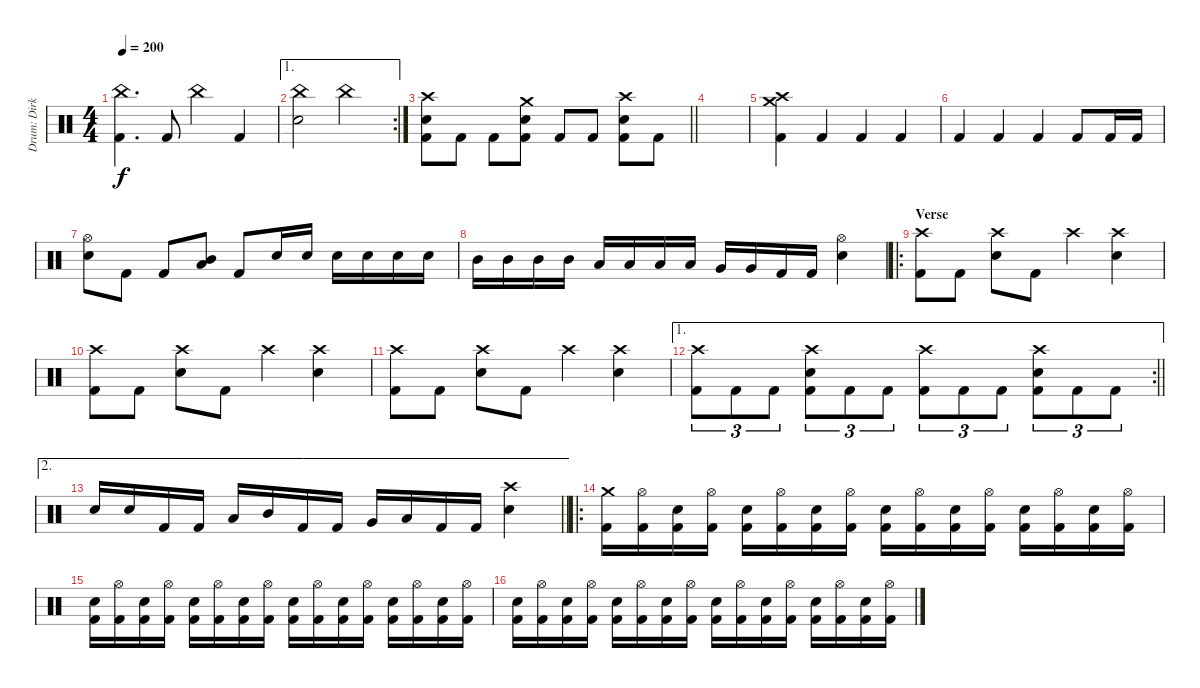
\track ("Drum: Dirk" "Drum: Dirk") {instrument percussion}
\staff {score}
\articulation defaults
\ts (4 4)
\tempo 200
\clef neutral
\ks c
("China (hit)" "Kick (hit) 2").4{d dy f} "Kick (hit) 2".8 "China (hit)".4 "Kick (hit) 2".4 |
\ae 1
\rc 2
("China (hit)" "Electric Snare (hit)").2 "China (hit)".2 |
\barLineRight lightlight
("Crash high (hit)" "Electric Snare (hit)" "Kick (hit) 2").8 "Kick (hit) 2".8 "Kick (hit) 2".8 ("Crash medium (hit)" "Electric Snare (hit)" "Kick (hit) 2").8 "Kick (hit) 2".8 "Kick (hit) 2".8 ("Crash high (hit)" "Electric Snare (hit)" "Kick (hit) 2").8 "Kick (hit) 2".8 |
\section ("" "")
|
("Crash high (hit)" "Crash medium (hit)" "Kick (hit) 2").4 "Kick (hit) 2".4 "Kick (hit) 2".4 "Kick (hit) 2".4 |
"Kick (hit) 2".4 "Kick (hit) 2".4 "Kick (hit) 2".4 "Kick (hit) 2".8 "Kick (hit) 2".16 "Kick (hit) 2".16 |
("Hi-Hat (open)" "Electric Snare (hit)").8 "Kick (hit) 2".8 "Kick (hit) 2".8 ("Mid Tom (hit)" "Low Tom (hit)").8 "Kick (hit) 2".8 "Electric Snare (hit)".16 "Electric Snare (hit)".16 "Electric Snare (hit)".16 "Electric Snare (hit)".16 "Electric Snare (hit)".16 "Electric Snare (hit)".16 |
"Mid Tom (hit)".16 "Mid Tom (hit)".16 "Mid Tom (hit)".16 "Mid Tom (hit)".16 "Low Tom (hit)".16 "Low Tom (hit)".16 "Low Tom (hit)".16 "Low Tom (hit)".16 "Very Low Tom (hit)".16 "Very Low Tom (hit)".16 "Kick (hit) 2".16 "Kick (hit) 2".16 ("Hi-Hat (open)" "Electric Snare (hit)").4 |
\ro
\section ("" "Verse")
("Crash high (hit)" "Kick (hit) 2").8 "Kick (hit) 2".8 ("Crash high (hit)" "Electric Snare (hit)").8 "Kick (hit) 2".8 "Crash high (hit)".4 ("Crash high (hit)" "Electric Snare (hit)").4 |
("Crash high (hit)" "Kick (hit) 2").8 "Kick (hit) 2".8 ("Crash high (hit)" "Electric Snare (hit)").8 "Kick (hit) 2".8 "Crash high (hit)".4 ("Crash high (hit)" "Electric Snare (hit)").4 |
("Crash high (hit)" "Kick (hit) 2").8 "Kick (hit) 2".8 ("Crash high (hit)" "Electric Snare (hit)").8 "Kick (hit) 2".8 "Crash high (hit)".4 ("Crash high (hit)" "Electric Snare (hit)").4 |
\ae 1
\rc 2
\barLineRight lightlight
("Crash high (hit)" "Kick (hit) 2").8{tu (3 2)} "Kick (hit) 2".8{tu (3 2)} "Kick (hit) 2".8{tu (3 2)} ("Crash high (hit)" "Electric Snare (hit)" "Kick (hit) 2").8{tu (3 2)} "Kick (hit) 2".8{tu (3 2)} "Kick (hit) 2".8{tu (3 2)} ("Crash high (hit)" "Kick (hit) 2").8{tu (3 2)} "Kick (hit) 2".8{tu (3 2)} "Kick (hit) 2".8{tu (3 2)} ("Crash high (hit)" "Electric Snare (hit)" "Kick (hit) 2").8{tu (3 2)} "Kick (hit) 2".8{tu (3 2)} "Kick (hit) 2".8{tu (3 2)} |
\ae 2
\barLineRight lightlight "Electric Snare (hit)".16 "Electric Snare (hit)".16 "Kick (hit) 2".16 "Kick (hit) 2".16 "Low Tom (hit)".16 "Mid Tom (hit)".16 "Kick (hit) 2".16 "Kick (hit) 2".16 "Very Low Tom (hit)".16 "Low Tom (hit)".16 "Kick (hit) 2".16 "Kick (hit) 2".16
("Crash high (hit)" "Electric Snare (hit)").4 |
\ro
("Crash medium (hit)" "Kick (hit) 2").16 ("Hi-Hat (open)" "Kick (hit) 2").16 ("Electric Snare (hit)" "Kick (hit) 2").16 ("Hi-Hat (open)" "Kick (hit) 2").16 ("Electric Snare (hit)" "Kick (hit) 2").16 ("Hi-Hat (open)" "Kick (hit) 2").16 ("Electric Snare (hit)" "Kick (hit) 2").16 ("Hi-Hat (open)" "Kick (hit) 2").16 ("Electric Snare (hit)" "Kick (hit) 2").16 ("Hi-Hat (open)" "Kick (hit) 2").16 ("Electric Snare (hit)" "Kick (hit) 2").16 ("Hi-Hat (open)" "Kick (hit) 2").16 ("Electric Snare (hit)" "Kick (hit) 2").16 ("Hi-Hat (open)" "Kick (hit) 2").16 ("Electric Snare (hit)" "Kick (hit) 2").16 ("Hi-Hat (open)" "Kick (hit) 2").16 |
("Electric Snare (hit)" "Kick (hit) 2").16 ("Hi-Hat (open)" "Kick (hit) 2").16 ("Electric Snare (hit)" "Kick (hit) 2").16 ("Hi-Hat (open)" "Kick (hit) 2").16 ("Electric Snare (hit)" "Kick (hit) 2").16 ("Hi-Hat (open)" "Kick (hit) 2").16 ("Electric Snare (hit)" "Kick (hit) 2").16 ("Hi-Hat (open)" "Kick (hit) 2").16 ("Electric Snare (hit)" "Kick (hit) 2").16 ("Hi-Hat (open)" "Kick (hit) 2").16 ("Electric Snare (hit)" "Kick (hit) 2").16 ("Hi-Hat (open)" "Kick (hit) 2").16 ("Electric Snare (hit)" "Kick (hit) 2").16 ("Hi-Hat (open)" "Kick (hit) 2").16 ("Electric Snare (hit)" "Kick (hit) 2").16 ("Hi-Hat (open)" "Kick (hit) 2").16 |
("Electric Snare (hit)" "Kick (hit) 2").16 ("Hi-Hat (open)" "Kick (hit) 2").16 ("Electric Snare (hit)" "Kick (hit) 2").16 ("Hi-Hat (open)" "Kick (hit) 2").16 ("Electric Snare (hit)" "Kick (hit) 2").16 ("Hi-Hat (open)" "Kick (hit) 2").16 ("Electric Snare (hit)" "Kick (hit) 2").16 ("Hi-Hat (open)" "Kick (hit) 2").16 ("Electric Snare (hit)" "Kick (hit) 2").16 ("Hi-Hat (open)" "Kick (hit) 2").16 ("Electric Snare (hit)" "Kick (hit) 2").16 ("Hi-Hat (open)" "Kick (hit) 2").16 ("Electric Snare (hit)" "Kick (hit) 2").16 ("Hi-Hat (open)" "Kick (hit) 2").16 ("Electric Snare (hit)" "Kick (hit) 2").16 ("Hi-Hat (open)" "Kick (hit) 2").16
